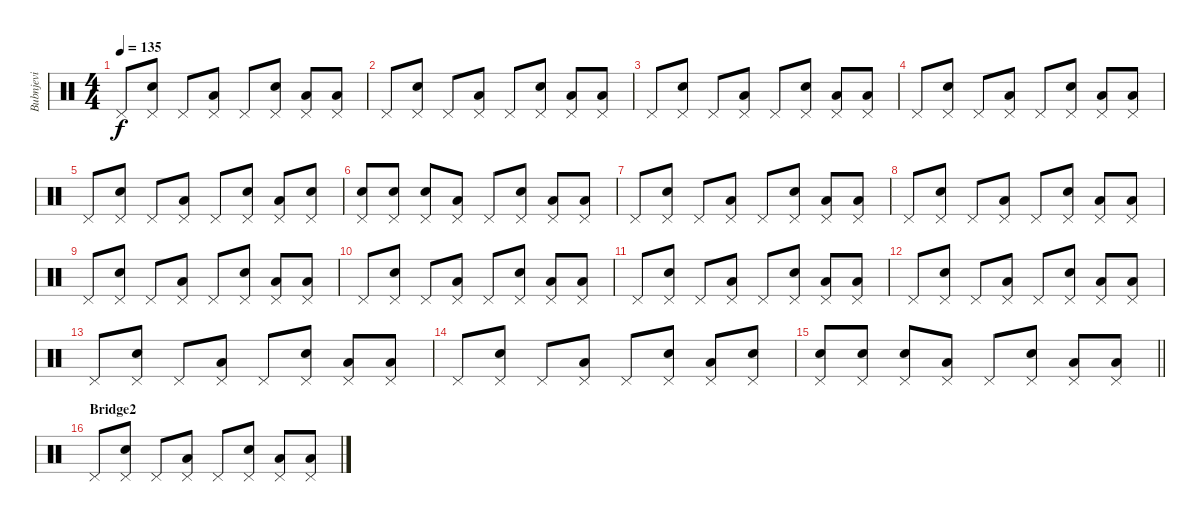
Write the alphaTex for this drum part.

\track ("Bubnjevi" "Bubnjevi") {instrument percussion}
\staff {score}
\articulation defaults
\ts (4 4)
\tempo 135
\clef neutral
\ks c "Pedal Hi-Hat (hit)".8{dy f}
("Pedal Hi-Hat (hit)" "Snare (hit) 2").8 "Pedal Hi-Hat (hit)".8 ("Pedal Hi-Hat (hit)" "Low Tom (hit)").8 "Pedal Hi-Hat (hit)".8 ("Pedal Hi-Hat (hit)" "Snare (hit) 2").8 ("Pedal Hi-Hat (hit)" "Low Tom (hit)").8 ("Pedal Hi-Hat (hit)" "Low Tom (hit)").8 |
"Pedal Hi-Hat (hit)".8 ("Pedal Hi-Hat (hit)" "Snare (hit) 2").8 "Pedal Hi-Hat (hit)".8 ("Pedal Hi-Hat (hit)" "Low Tom (hit)").8 "Pedal Hi-Hat (hit)".8 ("Pedal Hi-Hat (hit)" "Snare (hit) 2").8 ("Pedal Hi-Hat (hit)" "Low Tom (hit)").8 ("Pedal Hi-Hat (hit)" "Low Tom (hit)").8 |
"Pedal Hi-Hat (hit)".8 ("Pedal Hi-Hat (hit)" "Snare (hit) 2").8 "Pedal Hi-Hat (hit)".8 ("Pedal Hi-Hat (hit)" "Low Tom (hit)").8 "Pedal Hi-Hat (hit)".8 ("Pedal Hi-Hat (hit)" "Snare (hit) 2").8 ("Pedal Hi-Hat (hit)" "Low Tom (hit)").8 ("Pedal Hi-Hat (hit)" "Low Tom (hit)").8 |
"Pedal Hi-Hat (hit)".8 ("Pedal Hi-Hat (hit)" "Snare (hit) 2").8 "Pedal Hi-Hat (hit)".8 ("Pedal Hi-Hat (hit)" "Low Tom (hit)").8 "Pedal Hi-Hat (hit)".8 ("Pedal Hi-Hat (hit)" "Snare (hit) 2").8 ("Pedal Hi-Hat (hit)" "Low Tom (hit)").8 ("Pedal Hi-Hat (hit)" "Low Tom (hit)").8 |
"Pedal Hi-Hat (hit)".8 ("Pedal Hi-Hat (hit)" "Snare (hit) 2").8 "Pedal Hi-Hat (hit)".8 ("Pedal Hi-Hat (hit)" "Low Tom (hit)").8 "Pedal Hi-Hat (hit)".8 ("Pedal Hi-Hat (hit)" "Snare (hit) 2").8 ("Pedal Hi-Hat (hit)" "Low Tom (hit)").8 ("Pedal Hi-Hat (hit)" "Snare (hit) 2").8 |
("Pedal Hi-Hat (hit)" "Snare (hit) 2").8 ("Pedal Hi-Hat (hit)" "Snare (hit) 2").8 ("Pedal Hi-Hat (hit)" "Snare (hit) 2").8 ("Pedal Hi-Hat (hit)" "Low Tom (hit)").8 "Pedal Hi-Hat (hit)".8 ("Pedal Hi-Hat (hit)" "Snare (hit) 2").8 ("Pedal Hi-Hat (hit)" "Low Tom (hit)").8 ("Pedal Hi-Hat (hit)" "Low Tom (hit)").8 |
"Pedal Hi-Hat (hit)".8 ("Pedal Hi-Hat (hit)" "Snare (hit) 2").8 "Pedal Hi-Hat (hit)".8 ("Pedal Hi-Hat (hit)" "Low Tom (hit)").8 "Pedal Hi-Hat (hit)".8 ("Pedal Hi-Hat (hit)" "Snare (hit) 2").8 ("Pedal Hi-Hat (hit)" "Low Tom (hit)").8 ("Pedal Hi-Hat (hit)" "Low Tom (hit)").8 |
"Pedal Hi-Hat (hit)".8 ("Pedal Hi-Hat (hit)" "Snare (hit) 2").8 "Pedal Hi-Hat (hit)".8 ("Pedal Hi-Hat (hit)" "Low Tom (hit)").8 "Pedal Hi-Hat (hit)".8 ("Pedal Hi-Hat (hit)" "Snare (hit) 2").8 ("Pedal Hi-Hat (hit)" "Low Tom (hit)").8 ("Pedal Hi-Hat (hit)" "Low Tom (hit)").8 |
"Pedal Hi-Hat (hit)".8 ("Pedal Hi-Hat (hit)" "Snare (hit) 2").8 "Pedal Hi-Hat (hit)".8 ("Pedal Hi-Hat (hit)" "Low Tom (hit)").8 "Pedal Hi-Hat (hit)".8 ("Pedal Hi-Hat (hit)" "Snare (hit) 2").8 ("Pedal Hi-Hat (hit)" "Low Tom (hit)").8 ("Pedal Hi-Hat (hit)" "Low Tom (hit)").8 |
"Pedal Hi-Hat (hit)".8 ("Pedal Hi-Hat (hit)" "Snare (hit) 2").8 "Pedal Hi-Hat (hit)".8 ("Pedal Hi-Hat (hit)" "Low Tom (hit)").8 "Pedal Hi-Hat (hit)".8 ("Pedal Hi-Hat (hit)" "Snare (hit) 2").8 ("Pedal Hi-Hat (hit)" "Low Tom (hit)").8 ("Pedal Hi-Hat (hit)" "Low Tom (hit)").8 |
"Pedal Hi-Hat (hit)".8 ("Pedal Hi-Hat (hit)" "Snare (hit) 2").8 "Pedal Hi-Hat (hit)".8 ("Pedal Hi-Hat (hit)" "Low Tom (hit)").8 "Pedal Hi-Hat (hit)".8 ("Pedal Hi-Hat (hit)" "Snare (hit) 2").8 ("Pedal Hi-Hat (hit)" "Low Tom (hit)").8 ("Pedal Hi-Hat (hit)" "Low Tom (hit)").8 |
"Pedal Hi-Hat (hit)".8 ("Pedal Hi-Hat (hit)" "Snare (hit) 2").8 "Pedal Hi-Hat (hit)".8 ("Pedal Hi-Hat (hit)" "Low Tom (hit)").8 "Pedal Hi-Hat (hit)".8 ("Pedal Hi-Hat (hit)" "Snare (hit) 2").8 ("Pedal Hi-Hat (hit)" "Low Tom (hit)").8 ("Pedal Hi-Hat (hit)" "Low Tom (hit)").8 |
"Pedal Hi-Hat (hit)".8 ("Pedal Hi-Hat (hit)" "Snare (hit) 2").8 "Pedal Hi-Hat (hit)".8 ("Pedal Hi-Hat (hit)" "Low Tom (hit)").8 "Pedal Hi-Hat (hit)".8 ("Pedal Hi-Hat (hit)" "Snare (hit) 2").8 ("Pedal Hi-Hat (hit)" "Low Tom (hit)").8 ("Pedal Hi-Hat (hit)" "Low Tom (hit)").8 |
"Pedal Hi-Hat (hit)".8 ("Pedal Hi-Hat (hit)" "Snare (hit) 2").8 "Pedal Hi-Hat (hit)".8 ("Pedal Hi-Hat (hit)" "Low Tom (hit)").8 "Pedal Hi-Hat (hit)".8 ("Pedal Hi-Hat (hit)" "Snare (hit) 2").8 ("Pedal Hi-Hat (hit)" "Low Tom (hit)").8 ("Pedal Hi-Hat (hit)" "Snare (hit) 2").8 |
\barLineRight lightlight
("Pedal Hi-Hat (hit)" "Snare (hit) 2").8 ("Pedal Hi-Hat (hit)" "Snare (hit) 2").8 ("Pedal Hi-Hat (hit)" "Snare (hit) 2").8 ("Pedal Hi-Hat (hit)" "Low Tom (hit)").8 "Pedal Hi-Hat (hit)".8 ("Pedal Hi-Hat (hit)" "Snare (hit) 2").8 ("Pedal Hi-Hat (hit)" "Low Tom (hit)").8 ("Pedal Hi-Hat (hit)" "Low Tom (hit)").8 |
\section ("" "Bridge2")
"Pedal Hi-Hat (hit)".8 ("Pedal Hi-Hat (hit)" "Snare (hit) 2").8 "Pedal Hi-Hat (hit)".8 ("Pedal Hi-Hat (hit)" "Low Tom (hit)").8 "Pedal Hi-Hat (hit)".8 ("Pedal Hi-Hat (hit)" "Snare (hit) 2").8 ("Pedal Hi-Hat (hit)" "Low Tom (hit)").8 ("Pedal Hi-Hat (hit)" "Low Tom (hit)").8
